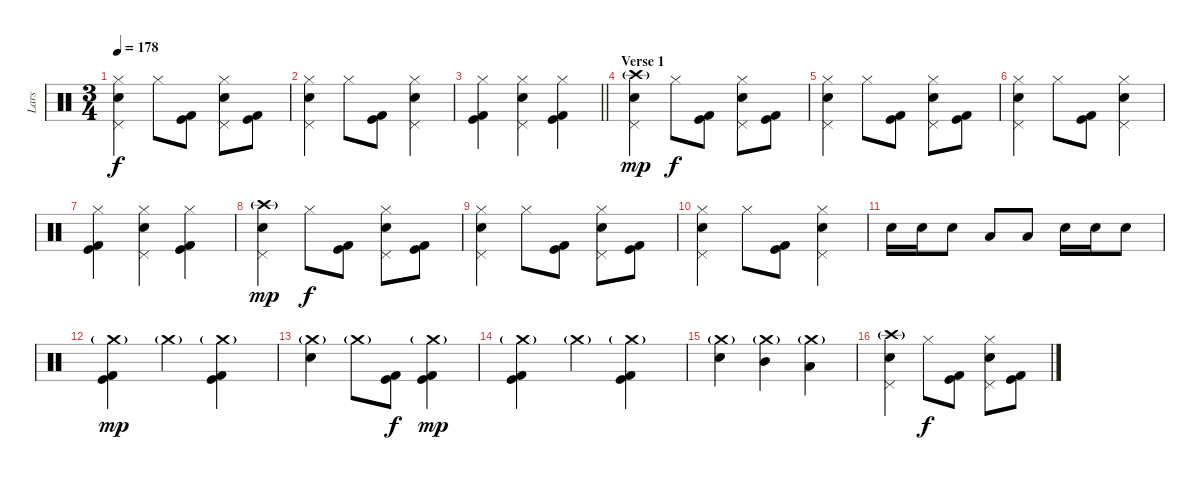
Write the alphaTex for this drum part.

\track ("Lars" "Lars") {instrument percussion}
\staff {score}
\articulation defaults
\ts (3 4)
\tempo 178
\clef neutral
\ks c
("Hi-Hat (closed)" "Pedal Hi-Hat (hit)" "Electric Snare (hit)").4{dy f} "Hi-Hat (closed)".8 ("Kick (hit)" "Kick (hit) 2").8 ("Hi-Hat (closed)" "Pedal Hi-Hat (hit)" "Electric Snare (hit)").8 ("Kick (hit)" "Kick (hit) 2").8 |
("Hi-Hat (closed)" "Pedal Hi-Hat (hit)" "Electric Snare (hit)").4 "Hi-Hat (closed)".8 ("Kick (hit)" "Kick (hit) 2").8 ("Hi-Hat (closed)" "Pedal Hi-Hat (hit)" "Electric Snare (hit)").4 |
\barLineRight lightlight
("Hi-Hat (closed)" "Kick (hit)" "Kick (hit) 2").4 ("Hi-Hat (closed)" "Pedal Hi-Hat (hit)" "Electric Snare (hit)").4 ("Hi-Hat (closed)" "Kick (hit)" "Kick (hit) 2").4 |
\section ("" "Verse 1")
("Crash high (hit)"{g} "Pedal Hi-Hat (hit)" "Electric Snare (hit)").4{dy mp} "Hi-Hat (closed)".8{dy f} ("Kick (hit)" "Kick (hit) 2").8 ("Hi-Hat (closed)" "Pedal Hi-Hat (hit)" "Electric Snare (hit)").8 ("Kick (hit)" "Kick (hit) 2").8 |
("Hi-Hat (closed)" "Pedal Hi-Hat (hit)" "Electric Snare (hit)").4 "Hi-Hat (closed)".8 ("Kick (hit)" "Kick (hit) 2").8 ("Hi-Hat (closed)" "Pedal Hi-Hat (hit)" "Electric Snare (hit)").8 ("Kick (hit)" "Kick (hit) 2").8 |
("Hi-Hat (closed)" "Pedal Hi-Hat (hit)" "Electric Snare (hit)").4 "Hi-Hat (closed)".8 ("Kick (hit)" "Kick (hit) 2").8 ("Hi-Hat (closed)" "Pedal Hi-Hat (hit)" "Electric Snare (hit)").4 |
("Hi-Hat (closed)" "Kick (hit)" "Kick (hit) 2").4 ("Hi-Hat (closed)" "Pedal Hi-Hat (hit)" "Electric Snare (hit)").4 ("Hi-Hat (closed)" "Kick (hit)" "Kick (hit) 2").4 |
("Crash high (hit)"{g} "Pedal Hi-Hat (hit)" "Electric Snare (hit)").4{dy mp} "Hi-Hat (closed)".8{dy f} ("Kick (hit)" "Kick (hit) 2").8 ("Hi-Hat (closed)" "Pedal Hi-Hat (hit)" "Electric Snare (hit)").8 ("Kick (hit)" "Kick (hit) 2").8 |
("Hi-Hat (closed)" "Pedal Hi-Hat (hit)" "Electric Snare (hit)").4 "Hi-Hat (closed)".8 ("Kick (hit)" "Kick (hit) 2").8 ("Hi-Hat (closed)" "Pedal Hi-Hat (hit)" "Electric Snare (hit)").8 ("Kick (hit)" "Kick (hit) 2").8 |
("Hi-Hat (closed)" "Pedal Hi-Hat (hit)" "Electric Snare (hit)").4 "Hi-Hat (closed)".8 ("Kick (hit)" "Kick (hit) 2").8 ("Hi-Hat (closed)" "Pedal Hi-Hat (hit)" "Electric Snare (hit)").4 |
"Electric Snare (hit)".16 "Electric Snare (hit)".16 "Electric Snare (hit)".8 "Low Tom (hit)".8 "Low Tom (hit)".8 "Electric Snare (hit)".16 "Electric Snare (hit)".16 "Electric Snare (hit)".8 |
("Crash medium (hit)"{g} "Kick (hit)" "Kick (hit) 2").4{dy mp} "Crash medium (hit)"{g}.4 ("Crash medium (hit)"{g} "Kick (hit)" "Kick (hit) 2").4 |
("Crash medium (hit)"{g} "Electric Snare (hit)").4 "Crash medium (hit)"{g}.8 ("Kick (hit)" "Kick (hit) 2").8{dy f} ("Crash medium (hit)"{g} "Kick (hit)" "Kick (hit) 2").4{dy mp} |
("Crash medium (hit)"{g} "Kick (hit)" "Kick (hit) 2").4 "Crash medium (hit)"{g}.4 ("Crash medium (hit)"{g} "Kick (hit)" "Kick (hit) 2").4 |
("Crash medium (hit)"{g} "Electric Snare (hit)").4 ("Crash medium (hit)"{g} "Mid Tom (hit)").4 ("Crash medium (hit)"{g} "Low Tom (hit)").4 |
("Crash high (hit)"{g} "Pedal Hi-Hat (hit)" "Electric Snare (hit)").4 "Hi-Hat (closed)".8{dy f} ("Kick (hit)" "Kick (hit) 2").8 ("Hi-Hat (closed)" "Pedal Hi-Hat (hit)" "Electric Snare (hit)").8 ("Kick (hit)" "Kick (hit) 2").8
